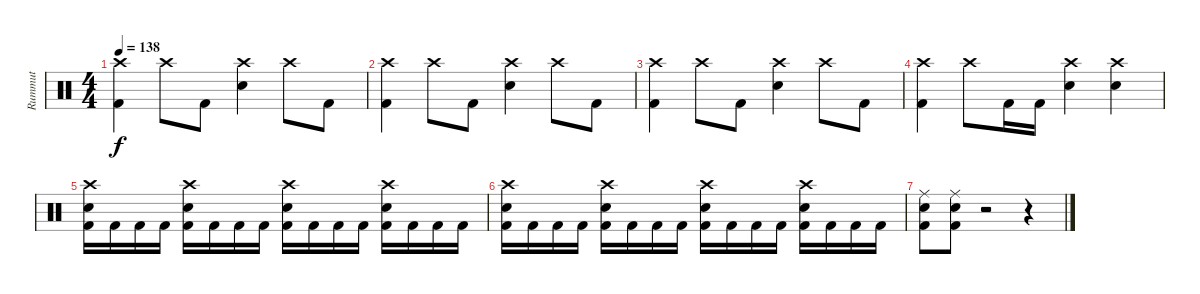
\track ("Rummut" "Rummut") {instrument percussion}
\staff {score}
\articulation defaults
\ts (4 4)
\tempo 138
\clef neutral
\ks c
("Crash high (hit)" "Kick (hit) 2").4{dy f} "Crash high (hit)".8 "Kick (hit) 2".8 ("Crash high (hit)" "Snare (hit) 2").4 "Crash high (hit)".8 "Kick (hit) 2".8 |
("Crash high (hit)" "Kick (hit) 2").4 "Crash high (hit)".8 "Kick (hit) 2".8 ("Crash high (hit)" "Snare (hit) 2").4 "Crash high (hit)".8 "Kick (hit) 2".8 |
("Crash high (hit)" "Kick (hit) 2").4 "Crash high (hit)".8 "Kick (hit) 2".8 ("Crash high (hit)" "Snare (hit) 2").4 "Crash high (hit)".8 "Kick (hit) 2".8 |
("Crash high (hit)" "Kick (hit) 2").4 "Crash high (hit)".8 "Kick (hit) 2".16 "Kick (hit) 2".16 ("Crash high (hit)" "Snare (hit) 2").4 ("Crash high (hit)" "Snare (hit) 2").4 |
("Crash high (hit)" "Snare (hit) 2" "Kick (hit) 2").16 "Kick (hit) 2".16 "Kick (hit) 2".16 "Kick (hit) 2".16 ("Crash high (hit)" "Snare (hit) 2" "Kick (hit) 2").16 "Kick (hit) 2".16 "Kick (hit) 2".16 "Kick (hit) 2".16 ("Crash high (hit)" "Snare (hit) 2" "Kick (hit) 2").16 "Kick (hit) 2".16 "Kick (hit) 2".16 "Kick (hit) 2".16 ("Crash high (hit)" "Snare (hit) 2" "Kick (hit) 2").16 "Kick (hit) 2".16 "Kick (hit) 2".16 "Kick (hit) 2".16 |
("Crash high (hit)" "Snare (hit) 2" "Kick (hit) 2").16 "Kick (hit) 2".16 "Kick (hit) 2".16 "Kick (hit) 2".16 ("Crash high (hit)" "Snare (hit) 2" "Kick (hit) 2").16 "Kick (hit) 2".16 "Kick (hit) 2".16 "Kick (hit) 2".16 ("Crash high (hit)" "Snare (hit) 2" "Kick (hit) 2").16 "Kick (hit) 2".16 "Kick (hit) 2".16 "Kick (hit) 2".16 ("Crash high (hit)" "Snare (hit) 2" "Kick (hit) 2").16 "Kick (hit) 2".16 "Kick (hit) 2".16 "Kick (hit) 2".16 |
("Ride (middle)" "Snare (hit) 2" "Kick (hit) 2").8 ("Ride (middle)" "Snare (hit) 2" "Kick (hit) 2").8 r.2 r.4
